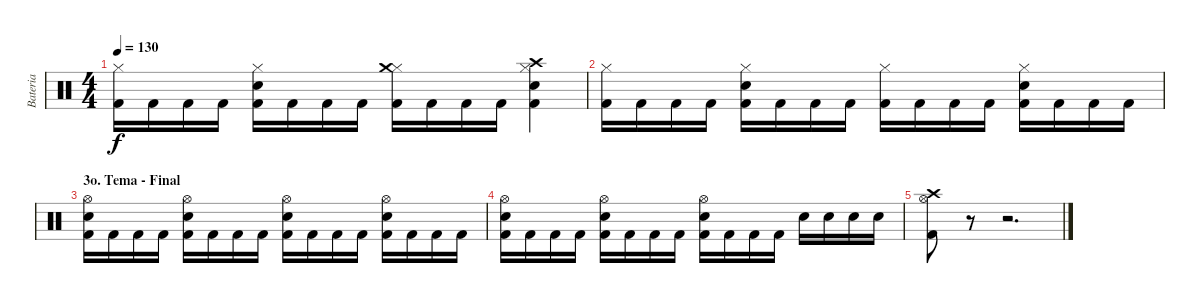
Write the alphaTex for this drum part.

\track ("Bateria" "Bateria") {instrument percussion}
\staff {score}
\articulation defaults
\ts (4 4)
\tempo 130
\clef neutral
\ks c
("Hi-Hat (closed)" "Kick (hit) 2").16{dy f} "Kick (hit) 2".16 "Kick (hit) 2".16 "Kick (hit) 2".16 ("Hi-Hat (closed)" "Snare (hit) 2" "Kick (hit) 2").16 "Kick (hit) 2".16 "Kick (hit) 2".16 "Kick (hit) 2".16 ("Hi-Hat (closed)" "Kick (hit) 2" "Crash medium (hit)").16 "Kick (hit) 2".16 "Kick (hit) 2".16 "Kick (hit) 2".16 ("Hi-Hat (closed)" "Snare (hit) 2" "Kick (hit) 2" "Crash high (hit)").4 |
("Hi-Hat (closed)" "Kick (hit) 2").16 "Kick (hit) 2".16 "Kick (hit) 2".16 "Kick (hit) 2".16 ("Hi-Hat (closed)" "Snare (hit) 2" "Kick (hit) 2").16 "Kick (hit) 2".16 "Kick (hit) 2".16 "Kick (hit) 2".16 ("Hi-Hat (closed)" "Kick (hit) 2").16 "Kick (hit) 2".16 "Kick (hit) 2".16 "Kick (hit) 2".16 ("Hi-Hat (closed)" "Snare (hit) 2" "Kick (hit) 2").16 "Kick (hit) 2".16 "Kick (hit) 2".16 "Kick (hit) 2".16 |
\section ("" "3o. Tema - Final")
("Hi-Hat (open)" "Snare (hit) 2" "Kick (hit) 2").16 "Kick (hit) 2".16 "Kick (hit) 2".16 "Kick (hit) 2".16 ("Hi-Hat (open)" "Snare (hit) 2" "Kick (hit) 2").16 "Kick (hit) 2".16 "Kick (hit) 2".16 "Kick (hit) 2".16 ("Hi-Hat (open)" "Snare (hit) 2" "Kick (hit) 2").16 "Kick (hit) 2".16 "Kick (hit) 2".16 "Kick (hit) 2".16 ("Hi-Hat (open)" "Snare (hit) 2" "Kick (hit) 2").16 "Kick (hit) 2".16 "Kick (hit) 2".16 "Kick (hit) 2".16 |
("Hi-Hat (open)" "Snare (hit) 2" "Kick (hit) 2").16 "Kick (hit) 2".16 "Kick (hit) 2".16 "Kick (hit) 2".16 ("Hi-Hat (open)" "Snare (hit) 2" "Kick (hit) 2").16 "Kick (hit) 2".16 "Kick (hit) 2".16 "Kick (hit) 2".16 ("Hi-Hat (open)" "Snare (hit) 2" "Kick (hit) 2").16 "Kick (hit) 2".16 "Kick (hit) 2".16 "Kick (hit) 2".16 "Snare (hit) 2".16 "Snare (hit) 2".16 "Snare (hit) 2".16 "Snare (hit) 2".16 |
("Hi-Hat (open)" "Kick (hit) 2" "Crash high (hit)").8 r.8 r.2{d}
